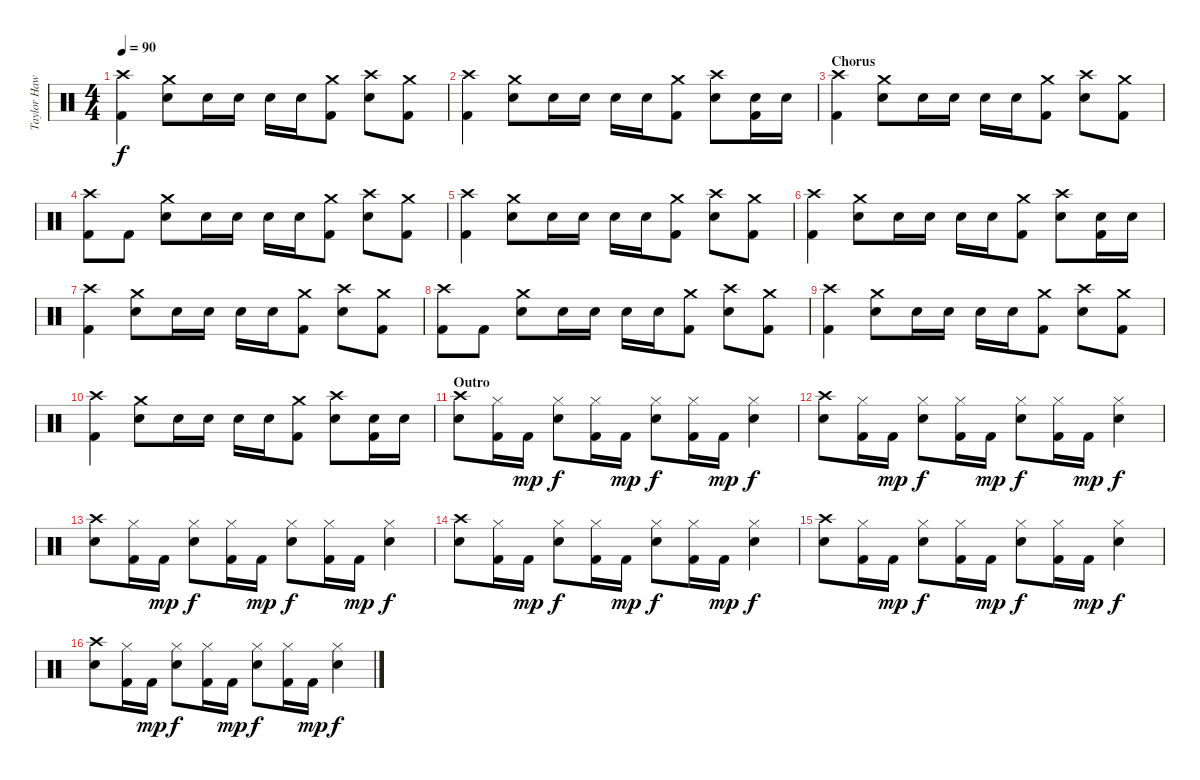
\track ("Taylor Hawkins" "Taylor Haw") {instrument percussion}
\staff {score}
\articulation defaults
\ts (4 4)
\tempo 90
\clef neutral
\ks c
("Crash high (hit)" "Kick (hit) 2").4{dy f} ("Crash medium (hit)" "Electric Snare (hit)").8 "Electric Snare (hit)".16 "Electric Snare (hit)".16 "Electric Snare (hit)".16 "Electric Snare (hit)".16 ("Crash medium (hit)" "Kick (hit) 2").8 ("Crash high (hit)" "Electric Snare (hit)").8 ("Crash medium (hit)" "Kick (hit) 2").8 |
("Crash high (hit)" "Kick (hit) 2").4 ("Crash medium (hit)" "Electric Snare (hit)").8 "Electric Snare (hit)".16 "Electric Snare (hit)".16 "Electric Snare (hit)".16 "Electric Snare (hit)".16 ("Crash medium (hit)" "Kick (hit) 2").8 ("Crash high (hit)" "Electric Snare (hit)").8 ("Electric Snare (hit)" "Kick (hit) 2").16 "Electric Snare (hit)".16 |
\section ("" "Chorus")
("Crash high (hit)" "Kick (hit) 2").4 ("Crash medium (hit)" "Electric Snare (hit)").8 "Electric Snare (hit)".16 "Electric Snare (hit)".16 "Electric Snare (hit)".16 "Electric Snare (hit)".16 ("Crash medium (hit)" "Kick (hit) 2").8 ("Crash high (hit)" "Electric Snare (hit)").8 ("Crash medium (hit)" "Kick (hit) 2").8 |
("Crash high (hit)" "Kick (hit) 2").8 "Kick (hit) 2".8 ("Crash medium (hit)" "Electric Snare (hit)").8 "Electric Snare (hit)".16 "Electric Snare (hit)".16 "Electric Snare (hit)".16 "Electric Snare (hit)".16 ("Crash medium (hit)" "Kick (hit) 2").8 ("Crash high (hit)" "Electric Snare (hit)").8 ("Crash medium (hit)" "Kick (hit) 2").8 |
("Crash high (hit)" "Kick (hit) 2").4 ("Crash medium (hit)" "Electric Snare (hit)").8 "Electric Snare (hit)".16 "Electric Snare (hit)".16 "Electric Snare (hit)".16 "Electric Snare (hit)".16 ("Crash medium (hit)" "Kick (hit) 2").8 ("Crash high (hit)" "Electric Snare (hit)").8 ("Crash medium (hit)" "Kick (hit) 2").8 |
("Crash high (hit)" "Kick (hit) 2").4 ("Crash medium (hit)" "Electric Snare (hit)").8 "Electric Snare (hit)".16 "Electric Snare (hit)".16 "Electric Snare (hit)".16 "Electric Snare (hit)".16 ("Crash medium (hit)" "Kick (hit) 2").8 ("Crash high (hit)" "Electric Snare (hit)").8 ("Electric Snare (hit)" "Kick (hit) 2").16 "Electric Snare (hit)".16 |
("Crash high (hit)" "Kick (hit) 2").4 ("Crash medium (hit)" "Electric Snare (hit)").8 "Electric Snare (hit)".16 "Electric Snare (hit)".16 "Electric Snare (hit)".16 "Electric Snare (hit)".16 ("Crash medium (hit)" "Kick (hit) 2").8 ("Crash high (hit)" "Electric Snare (hit)").8 ("Crash medium (hit)" "Kick (hit) 2").8 |
("Crash high (hit)" "Kick (hit) 2").8 "Kick (hit) 2".8 ("Crash medium (hit)" "Electric Snare (hit)").8 "Electric Snare (hit)".16 "Electric Snare (hit)".16 "Electric Snare (hit)".16 "Electric Snare (hit)".16 ("Crash medium (hit)" "Kick (hit) 2").8 ("Crash high (hit)" "Electric Snare (hit)").8 ("Crash medium (hit)" "Kick (hit) 2").8 |
("Crash high (hit)" "Kick (hit) 2").4 ("Crash medium (hit)" "Electric Snare (hit)").8 "Electric Snare (hit)".16 "Electric Snare (hit)".16 "Electric Snare (hit)".16 "Electric Snare (hit)".16 ("Crash medium (hit)" "Kick (hit) 2").8 ("Crash high (hit)" "Electric Snare (hit)").8 ("Crash medium (hit)" "Kick (hit) 2").8 |
("Crash high (hit)" "Kick (hit) 2").4 ("Crash medium (hit)" "Electric Snare (hit)").8 "Electric Snare (hit)".16 "Electric Snare (hit)".16 "Electric Snare (hit)".16 "Electric Snare (hit)".16 ("Crash medium (hit)" "Kick (hit) 2").8 ("Crash high (hit)" "Electric Snare (hit)").8 ("Electric Snare (hit)" "Kick (hit) 2").16 "Electric Snare (hit)".16 |
\section ("" "Outro")
("Crash high (hit)" "Electric Snare (hit)").8 ("Hi-Hat (closed)" "Kick (hit) 2").16 "Kick (hit) 2".16{dy mp} ("Hi-Hat (closed)" "Electric Snare (hit)").8{dy f} ("Hi-Hat (closed)" "Kick (hit) 2").16 "Kick (hit) 2".16{dy mp} ("Hi-Hat (closed)" "Electric Snare (hit)").8{dy f} ("Hi-Hat (closed)" "Kick (hit) 2").16 "Kick (hit) 2".16{dy mp} ("Hi-Hat (closed)" "Electric Snare (hit)").4{dy f} |
("Crash high (hit)" "Electric Snare (hit)").8 ("Hi-Hat (closed)" "Kick (hit) 2").16 "Kick (hit) 2".16{dy mp} ("Hi-Hat (closed)" "Electric Snare (hit)").8{dy f} ("Hi-Hat (closed)" "Kick (hit) 2").16 "Kick (hit) 2".16{dy mp} ("Hi-Hat (closed)" "Electric Snare (hit)").8{dy f} ("Hi-Hat (closed)" "Kick (hit) 2").16 "Kick (hit) 2".16{dy mp} ("Hi-Hat (closed)" "Electric Snare (hit)").4{dy f} |
("Crash high (hit)" "Electric Snare (hit)").8 ("Hi-Hat (closed)" "Kick (hit) 2").16 "Kick (hit) 2".16{dy mp} ("Hi-Hat (closed)" "Electric Snare (hit)").8{dy f} ("Hi-Hat (closed)" "Kick (hit) 2").16 "Kick (hit) 2".16{dy mp} ("Hi-Hat (closed)" "Electric Snare (hit)").8{dy f} ("Hi-Hat (closed)" "Kick (hit) 2").16 "Kick (hit) 2".16{dy mp} ("Hi-Hat (closed)" "Electric Snare (hit)").4{dy f} |
("Crash high (hit)" "Electric Snare (hit)").8 ("Hi-Hat (closed)" "Kick (hit) 2").16 "Kick (hit) 2".16{dy mp} ("Hi-Hat (closed)" "Electric Snare (hit)").8{dy f} ("Hi-Hat (closed)" "Kick (hit) 2").16 "Kick (hit) 2".16{dy mp} ("Hi-Hat (closed)" "Electric Snare (hit)").8{dy f} ("Hi-Hat (closed)" "Kick (hit) 2").16 "Kick (hit) 2".16{dy mp} ("Hi-Hat (closed)" "Electric Snare (hit)").4{dy f} |
("Crash high (hit)" "Electric Snare (hit)").8 ("Hi-Hat (closed)" "Kick (hit) 2").16 "Kick (hit) 2".16{dy mp} ("Hi-Hat (closed)" "Electric Snare (hit)").8{dy f} ("Hi-Hat (closed)" "Kick (hit) 2").16 "Kick (hit) 2".16{dy mp} ("Hi-Hat (closed)" "Electric Snare (hit)").8{dy f} ("Hi-Hat (closed)" "Kick (hit) 2").16 "Kick (hit) 2".16{dy mp} ("Hi-Hat (closed)" "Electric Snare (hit)").4{dy f} |
("Crash high (hit)" "Electric Snare (hit)").8 ("Hi-Hat (closed)" "Kick (hit) 2").16 "Kick (hit) 2".16{dy mp} ("Hi-Hat (closed)" "Electric Snare (hit)").8{dy f} ("Hi-Hat (closed)" "Kick (hit) 2").16 "Kick (hit) 2".16{dy mp} ("Hi-Hat (closed)" "Electric Snare (hit)").8{dy f} ("Hi-Hat (closed)" "Kick (hit) 2").16 "Kick (hit) 2".16{dy mp} ("Hi-Hat (closed)" "Electric Snare (hit)").4{dy f}
